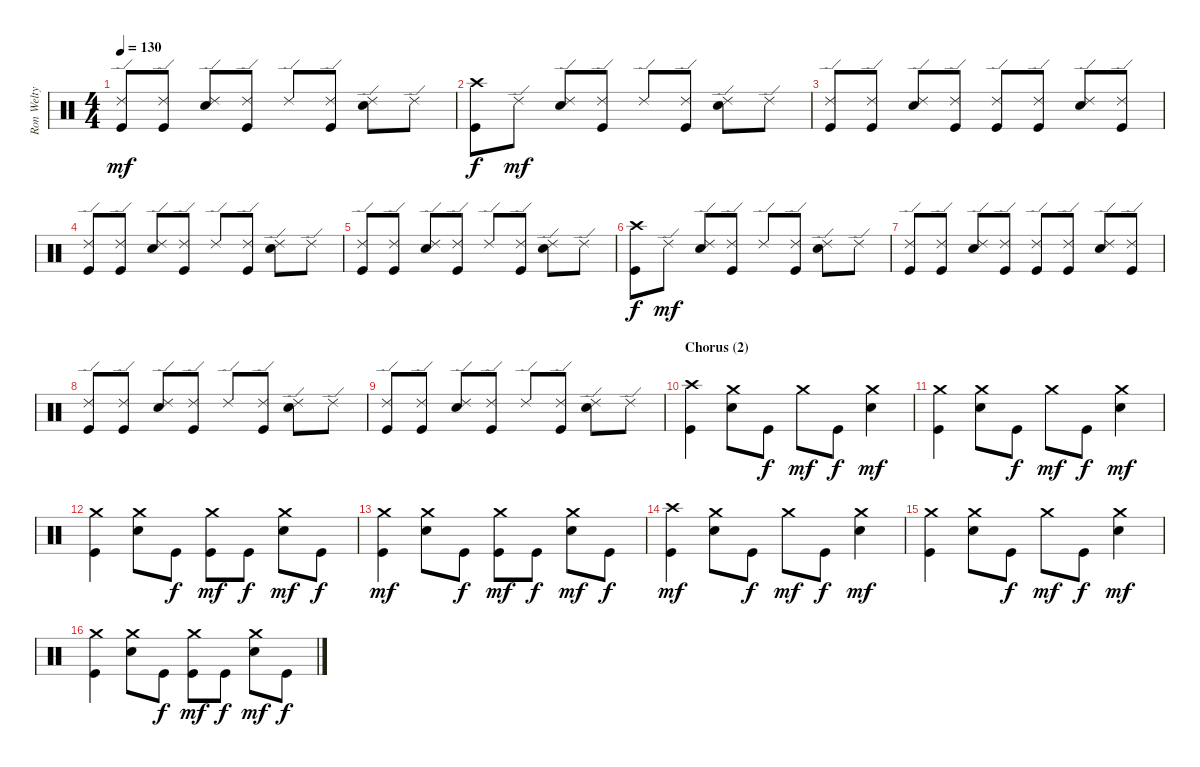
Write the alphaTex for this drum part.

\track ("Ron Welty" "Ron Welty") {instrument percussion}
\staff {score}
\articulation defaults
\ts (4 4)
\tempo 130
\clef neutral
\ks c
("Kick (hit)" "Ride (edge) 2").8{dy mf} ("Kick (hit)" "Ride (edge) 2").8 ("Electric Snare (hit)" "Ride (edge) 2").8 ("Kick (hit)" "Ride (edge) 2").8 "Ride (edge) 2".8 ("Kick (hit)" "Ride (edge) 2").8 ("Electric Snare (hit)" "Ride (edge) 2").8 "Ride (edge) 2".8 |
("Kick (hit)" "Crash high (hit)").8{dy f} "Ride (edge) 2".8{dy mf} ("Electric Snare (hit)" "Ride (edge) 2").8 ("Kick (hit)" "Ride (edge) 2").8 "Ride (edge) 2".8 ("Kick (hit)" "Ride (edge) 2").8 ("Electric Snare (hit)" "Ride (edge) 2").8 "Ride (edge) 2".8 |
("Kick (hit)" "Ride (edge) 2").8 ("Kick (hit)" "Ride (edge) 2").8 ("Electric Snare (hit)" "Ride (edge) 2").8 ("Kick (hit)" "Ride (edge) 2").8 ("Kick (hit)" "Ride (edge) 2").8 ("Kick (hit)" "Ride (edge) 2").8 ("Electric Snare (hit)" "Ride (edge) 2").8 ("Kick (hit)" "Ride (edge) 2").8 |
("Kick (hit)" "Ride (edge) 2").8 ("Kick (hit)" "Ride (edge) 2").8 ("Electric Snare (hit)" "Ride (edge) 2").8 ("Kick (hit)" "Ride (edge) 2").8 "Ride (edge) 2".8 ("Kick (hit)" "Ride (edge) 2").8 ("Electric Snare (hit)" "Ride (edge) 2").8 "Ride (edge) 2".8 |
("Kick (hit)" "Ride (edge) 2").8 ("Kick (hit)" "Ride (edge) 2").8 ("Electric Snare (hit)" "Ride (edge) 2").8 ("Kick (hit)" "Ride (edge) 2").8 "Ride (edge) 2".8 ("Kick (hit)" "Ride (edge) 2").8 ("Electric Snare (hit)" "Ride (edge) 2").8 "Ride (edge) 2".8 |
("Kick (hit)" "Crash high (hit)").8{dy f} "Ride (edge) 2".8{dy mf} ("Electric Snare (hit)" "Ride (edge) 2").8 ("Kick (hit)" "Ride (edge) 2").8 "Ride (edge) 2".8 ("Kick (hit)" "Ride (edge) 2").8 ("Electric Snare (hit)" "Ride (edge) 2").8 "Ride (edge) 2".8 |
("Kick (hit)" "Ride (edge) 2").8 ("Kick (hit)" "Ride (edge) 2").8 ("Electric Snare (hit)" "Ride (edge) 2").8 ("Kick (hit)" "Ride (edge) 2").8 ("Kick (hit)" "Ride (edge) 2").8 ("Kick (hit)" "Ride (edge) 2").8 ("Electric Snare (hit)" "Ride (edge) 2").8 ("Kick (hit)" "Ride (edge) 2").8 |
("Kick (hit)" "Ride (edge) 2").8 ("Kick (hit)" "Ride (edge) 2").8 ("Electric Snare (hit)" "Ride (edge) 2").8 ("Kick (hit)" "Ride (edge) 2").8 "Ride (edge) 2".8 ("Kick (hit)" "Ride (edge) 2").8 ("Electric Snare (hit)" "Ride (edge) 2").8 "Ride (edge) 2".8 |
("Kick (hit)" "Ride (edge) 2").8 ("Kick (hit)" "Ride (edge) 2").8 ("Electric Snare (hit)" "Ride (edge) 2").8 ("Kick (hit)" "Ride (edge) 2").8 "Ride (edge) 2".8 ("Kick (hit)" "Ride (edge) 2").8 ("Electric Snare (hit)" "Ride (edge) 2").8 "Ride (edge) 2".8 |
\section ("" "Chorus (2)")
("Kick (hit)" "Crash high (hit)").4 ("Electric Snare (hit)" "Crash medium (hit)").8 "Kick (hit)".8{dy f} "Crash medium (hit)".8{dy mf} "Kick (hit)".8{dy f} ("Electric Snare (hit)" "Crash medium (hit)").4{dy mf} |
("Kick (hit)" "Crash medium (hit)").4 ("Electric Snare (hit)" "Crash medium (hit)").8 "Kick (hit)".8{dy f} "Crash medium (hit)".8{dy mf} "Kick (hit)".8{dy f} ("Electric Snare (hit)" "Crash medium (hit)").4{dy mf} |
("Kick (hit)" "Crash medium (hit)").4 ("Electric Snare (hit)" "Crash medium (hit)").8 "Kick (hit)".8{dy f} ("Kick (hit)" "Crash medium (hit)").8{dy mf} "Kick (hit)".8{dy f} ("Electric Snare (hit)" "Crash medium (hit)").8{dy mf} "Kick (hit)".8{dy f} |
("Kick (hit)" "Crash medium (hit)").4{dy mf} ("Electric Snare (hit)" "Crash medium (hit)").8 "Kick (hit)".8{dy f} ("Kick (hit)" "Crash medium (hit)").8{dy mf} "Kick (hit)".8{dy f} ("Electric Snare (hit)" "Crash medium (hit)").8{dy mf} "Kick (hit)".8{dy f} |
("Kick (hit)" "Crash high (hit)").4{dy mf} ("Electric Snare (hit)" "Crash medium (hit)").8 "Kick (hit)".8{dy f} "Crash medium (hit)".8{dy mf} "Kick (hit)".8{dy f} ("Electric Snare (hit)" "Crash medium (hit)").4{dy mf} |
("Kick (hit)" "Crash medium (hit)").4 ("Electric Snare (hit)" "Crash medium (hit)").8 "Kick (hit)".8{dy f} "Crash medium (hit)".8{dy mf} "Kick (hit)".8{dy f} ("Electric Snare (hit)" "Crash medium (hit)").4{dy mf} |
("Kick (hit)" "Crash medium (hit)").4 ("Electric Snare (hit)" "Crash medium (hit)").8 "Kick (hit)".8{dy f} ("Kick (hit)" "Crash medium (hit)").8{dy mf} "Kick (hit)".8{dy f} ("Electric Snare (hit)" "Crash medium (hit)").8{dy mf} "Kick (hit)".8{dy f}
